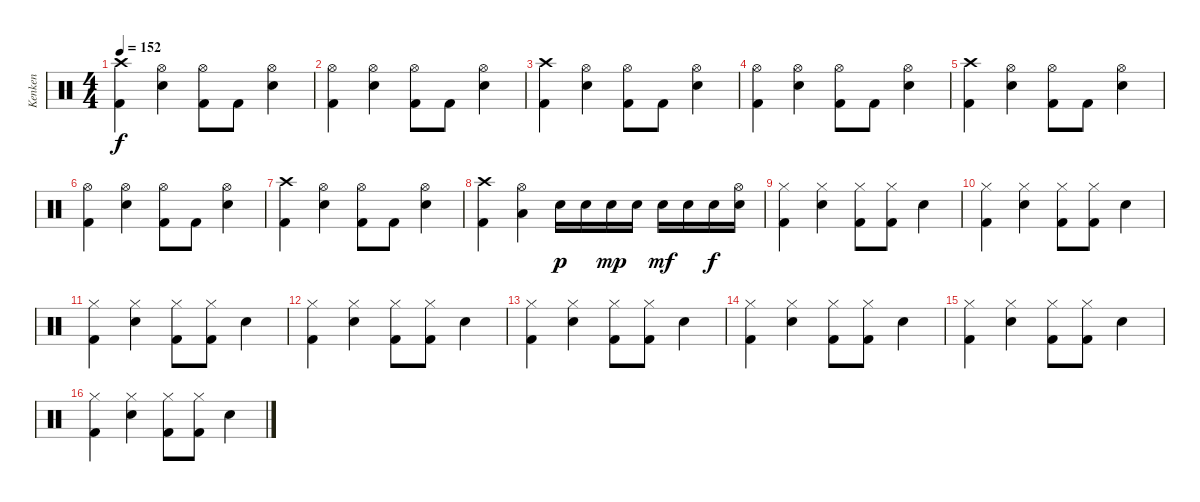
\track ("Kenken" "Kenken") {instrument percussion}
\staff {score}
\articulation defaults
\ts (4 4)
\tempo 152
\clef neutral
\ks c
("Crash high (hit)" "Kick (hit) 2").4{dy f} ("Hi-Hat (open)" "Electric Snare (hit)").4 ("Hi-Hat (open)" "Kick (hit) 2").8 "Kick (hit) 2".8 ("Hi-Hat (open)" "Electric Snare (hit)").4 |
("Hi-Hat (open)" "Kick (hit) 2").4 ("Hi-Hat (open)" "Electric Snare (hit)").4 ("Hi-Hat (open)" "Kick (hit) 2").8 "Kick (hit) 2".8 ("Hi-Hat (open)" "Electric Snare (hit)").4 |
("Crash high (hit)" "Kick (hit) 2").4 ("Hi-Hat (open)" "Electric Snare (hit)").4 ("Hi-Hat (open)" "Kick (hit) 2").8 "Kick (hit) 2".8 ("Hi-Hat (open)" "Electric Snare (hit)").4 |
("Hi-Hat (open)" "Kick (hit) 2").4 ("Hi-Hat (open)" "Electric Snare (hit)").4 ("Hi-Hat (open)" "Kick (hit) 2").8 "Kick (hit) 2".8 ("Hi-Hat (open)" "Electric Snare (hit)").4 |
("Crash high (hit)" "Kick (hit) 2").4 ("Hi-Hat (open)" "Electric Snare (hit)").4 ("Hi-Hat (open)" "Kick (hit) 2").8 "Kick (hit) 2".8 ("Hi-Hat (open)" "Electric Snare (hit)").4 |
("Hi-Hat (open)" "Kick (hit) 2").4 ("Hi-Hat (open)" "Electric Snare (hit)").4 ("Hi-Hat (open)" "Kick (hit) 2").8 "Kick (hit) 2".8 ("Hi-Hat (open)" "Electric Snare (hit)").4 |
("Crash high (hit)" "Kick (hit) 2").4 ("Hi-Hat (open)" "Electric Snare (hit)").4 ("Hi-Hat (open)" "Kick (hit) 2").8 "Kick (hit) 2".8 ("Hi-Hat (open)" "Electric Snare (hit)").4 |
("Crash high (hit)" "Kick (hit) 2").4 ("Hi-Hat (open)" "Low Tom (hit)").4 "Electric Snare (hit)".16{dy p} "Electric Snare (hit)".16 "Electric Snare (hit)".16{dy mp} "Electric Snare (hit)".16 "Electric Snare (hit)".16{dy mf} "Electric Snare (hit)".16 "Electric Snare (hit)".16{dy f} ("Hi-Hat (open)" "Electric Snare (hit)").16 |
("Hi-Hat (closed)" "Kick (hit) 2").4 ("Hi-Hat (closed)" "Electric Snare (hit)").4 ("Hi-Hat (closed)" "Kick (hit) 2").8 ("Hi-Hat (closed)" "Kick (hit) 2").8 "Electric Snare (hit)".4 |
("Hi-Hat (closed)" "Kick (hit) 2").4 ("Hi-Hat (closed)" "Electric Snare (hit)").4 ("Hi-Hat (closed)" "Kick (hit) 2").8 ("Hi-Hat (closed)" "Kick (hit) 2").8 "Electric Snare (hit)".4 |
("Hi-Hat (closed)" "Kick (hit) 2").4 ("Hi-Hat (closed)" "Electric Snare (hit)").4 ("Hi-Hat (closed)" "Kick (hit) 2").8 ("Hi-Hat (closed)" "Kick (hit) 2").8 "Electric Snare (hit)".4 |
("Hi-Hat (closed)" "Kick (hit) 2").4 ("Hi-Hat (closed)" "Electric Snare (hit)").4 ("Hi-Hat (closed)" "Kick (hit) 2").8 ("Hi-Hat (closed)" "Kick (hit) 2").8 "Electric Snare (hit)".4 |
("Hi-Hat (closed)" "Kick (hit) 2").4 ("Hi-Hat (closed)" "Electric Snare (hit)").4 ("Hi-Hat (closed)" "Kick (hit) 2").8 ("Hi-Hat (closed)" "Kick (hit) 2").8 "Electric Snare (hit)".4 |
("Hi-Hat (closed)" "Kick (hit) 2").4 ("Hi-Hat (closed)" "Electric Snare (hit)").4 ("Hi-Hat (closed)" "Kick (hit) 2").8 ("Hi-Hat (closed)" "Kick (hit) 2").8 "Electric Snare (hit)".4 |
("Hi-Hat (closed)" "Kick (hit) 2").4 ("Hi-Hat (closed)" "Electric Snare (hit)").4 ("Hi-Hat (closed)" "Kick (hit) 2").8 ("Hi-Hat (closed)" "Kick (hit) 2").8 "Electric Snare (hit)".4 |
("Hi-Hat (closed)" "Kick (hit) 2").4 ("Hi-Hat (closed)" "Electric Snare (hit)").4 ("Hi-Hat (closed)" "Kick (hit) 2").8 ("Hi-Hat (closed)" "Kick (hit) 2").8 "Electric Snare (hit)".4
